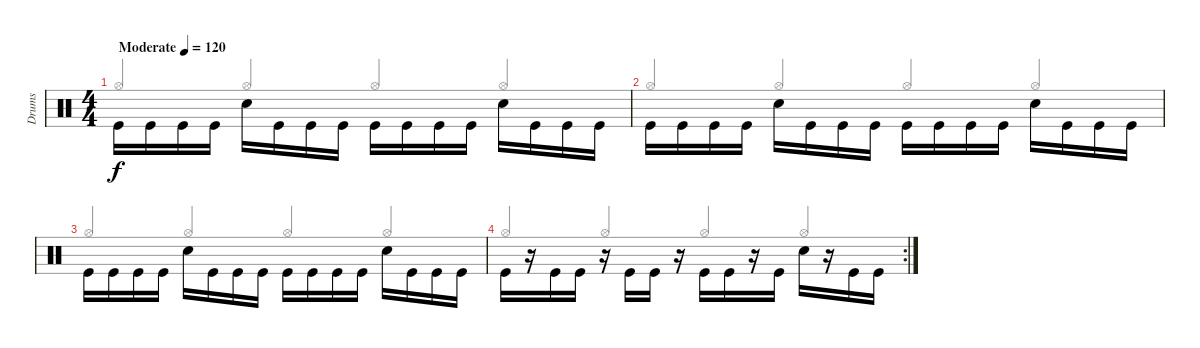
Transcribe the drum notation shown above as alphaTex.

\track ("Drums" "Drums") {instrument percussion}
\staff {score}
\articulation defaults
\voice
\ts (4 4)
\tempo (120 "Moderate")
\clef neutral
\ks c "Kick (hit)".16{dy f beam Down} "Kick (hit)".16{beam Down} "Kick (hit)".16{beam Down} "Kick (hit)".16{beam Down} "Snare (hit) 2".16{beam Down} "Kick (hit)".16{beam Down} "Kick (hit)".16{beam Down} "Kick (hit)".16{beam Down} "Kick (hit)".16{beam Down} "Kick (hit)".16{beam Down} "Kick (hit)".16{beam Down} "Kick (hit)".16{beam Down} "Snare (hit) 2".16{beam Down} "Kick (hit)".16{beam Down} "Kick (hit)".16{beam Down} "Kick (hit)".16{beam Down}
|
"Kick (hit)".16{beam Down} "Kick (hit)".16{beam Down} "Kick (hit)".16{beam Down} "Kick (hit)".16{beam Down} "Snare (hit) 2".16{beam Down} "Kick (hit)".16{beam Down} "Kick (hit)".16{beam Down} "Kick (hit)".16{beam Down} "Kick (hit)".16{beam Down} "Kick (hit)".16{beam Down} "Kick (hit)".16{beam Down} "Kick (hit)".16{beam Down} "Snare (hit) 2".16{beam Down} "Kick (hit)".16{beam Down} "Kick (hit)".16{beam Down} "Kick (hit)".16{beam Down} |
"Kick (hit)".16{beam Down} "Kick (hit)".16{beam Down} "Kick (hit)".16{beam Down} "Kick (hit)".16{beam Down} "Snare (hit) 2".16{beam Down} "Kick (hit)".16{beam Down} "Kick (hit)".16{beam Down} "Kick (hit)".16{beam Down} "Kick (hit)".16{beam Down} "Kick (hit)".16{beam Down} "Kick (hit)".16{beam Down} "Kick (hit)".16{beam Down} "Snare (hit) 2".16{beam Down} "Kick (hit)".16{beam Down} "Kick (hit)".16{beam Down} "Kick (hit)".16{beam Down} |
\rc 2 "Kick (hit)".16{beam Down}
r.16{beam Down} "Kick (hit)".16{beam Down} "Kick (hit)".16{beam Down} r.16{beam Down} "Kick (hit)".16{beam Down} "Kick (hit)".16{beam Down} r.16{beam Down} "Kick (hit)".16{beam Down} "Kick (hit)".16{beam Down} r.16{beam Down} "Kick (hit)".16{beam Down} "Snare (hit) 2".16{beam Down} r.16{beam Down} "Kick (hit)".16{beam Down} "Kick (hit)".16{beam Down}
\voice
\clef neutral
\ottava regular
\simile none
\ks c "Hi-Hat (open)".4{dy f beam Up} "Hi-Hat (open)".4{beam Up} "Hi-Hat (open)".4{beam Up} "Hi-Hat (open)".4{beam Up}
|
"Hi-Hat (open)".4{beam Up} "Hi-Hat (open)".4{beam Up} "Hi-Hat (open)".4{beam Up} "Hi-Hat (open)".4{beam Up} |
"Hi-Hat (open)".4{beam Up} "Hi-Hat (open)".4{beam Up} "Hi-Hat (open)".4{beam Up} "Hi-Hat (open)".4{beam Up} |
"Hi-Hat (open)".4{beam Up} "Hi-Hat (open)".4{beam Up} "Hi-Hat (open)".4{beam Up} "Hi-Hat (open)".4{beam Up}
